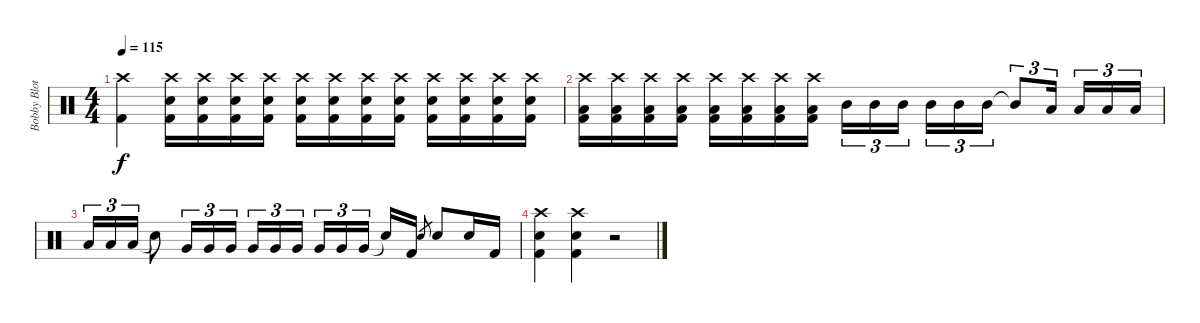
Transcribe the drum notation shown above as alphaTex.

\track ("Bobby Blotzer" "Bobby Blot") {instrument percussion}
\staff {score}
\articulation defaults
\ts (4 4)
\tempo 115
\clef neutral
\ks c
("Crash high (hit)" "Kick (hit) 2").4{dy f} ("Crash high (hit)" "Electric Snare (hit)" "Kick (hit) 2").16 ("Crash high (hit)" "Electric Snare (hit)" "Kick (hit) 2").16 ("Crash high (hit)" "Electric Snare (hit)" "Kick (hit) 2").16 ("Crash high (hit)" "Electric Snare (hit)" "Kick (hit) 2").16 ("Crash high (hit)" "Electric Snare (hit)" "Kick (hit) 2").16 ("Crash high (hit)" "Electric Snare (hit)" "Kick (hit) 2").16 ("Crash high (hit)" "Electric Snare (hit)" "Kick (hit) 2").16 ("Crash high (hit)" "Electric Snare (hit)" "Kick (hit) 2").16 ("Crash high (hit)" "Electric Snare (hit)" "Kick (hit) 2").16 ("Crash high (hit)" "Electric Snare (hit)" "Kick (hit) 2").16 ("Crash high (hit)" "Electric Snare (hit)" "Kick (hit) 2").16 ("Crash high (hit)" "Electric Snare (hit)" "Kick (hit) 2").16 |
("Crash high (hit)" "Low Tom (hit)" "Kick (hit) 2").16 ("Crash high (hit)" "Low Tom (hit)" "Kick (hit) 2").16 ("Crash high (hit)" "Low Tom (hit)" "Kick (hit) 2").16 ("Crash high (hit)" "Low Tom (hit)" "Kick (hit) 2").16 ("Crash high (hit)" "Low Tom (hit)" "Kick (hit) 2").16 ("Crash high (hit)" "Low Tom (hit)" "Kick (hit) 2").16 ("Crash high (hit)" "Low Tom (hit)" "Kick (hit) 2").16 ("Crash high (hit)" "Low Tom (hit)" "Kick (hit) 2").16 "Mid Tom (hit)".16{tu (3 2)} "Mid Tom (hit)".16{tu (3 2)} "Mid Tom (hit)".16{tu (3 2)} "Mid Tom (hit)".16{tu (3 2)} "Mid Tom (hit)".16{tu (3 2)} "Mid Tom (hit)".16{tu (3 2)} "Mid Tom (hit)"{t}.8{tu (3 2)} "Low Tom (hit)".16{tu (3 2)} "Low Tom (hit)".16{tu (3 2)} "Low Tom (hit)".16{tu (3 2)} "Low Tom (hit)".16{tu (3 2)} |
"Low Tom (hit)".16{tu (3 2)} "Low Tom (hit)".16{tu (3 2)} "Low Tom (hit)".16{tu (3 2)} "Snare (hit)"{t}.8 "Very Low Tom (hit)".16{tu (3 2)} "Very Low Tom (hit)".16{tu (3 2)} "Very Low Tom (hit)".16{tu (3 2)} "Very Low Tom (hit)".16{tu (3 2)} "Very Low Tom (hit)".16{tu (3 2)} "Very Low Tom (hit)".16{tu (3 2)} "Very Low Tom (hit)".16{tu (3 2)} "Very Low Tom (hit)".16{tu (3 2)} "Very Low Tom (hit)".16{tu (3 2)} "Snare (hit)"{t}.16 "Kick (hit) 2".16 "Electric Snare (hit)".8{gr} "Electric Snare (hit)".8 "Electric Snare (hit)".16 "Kick (hit) 2".16 |
("Crash high (hit)" "Electric Snare (hit)" "Kick (hit) 2").4 ("Crash high (hit)" "Electric Snare (hit)" "Kick (hit) 2").4 r.2
